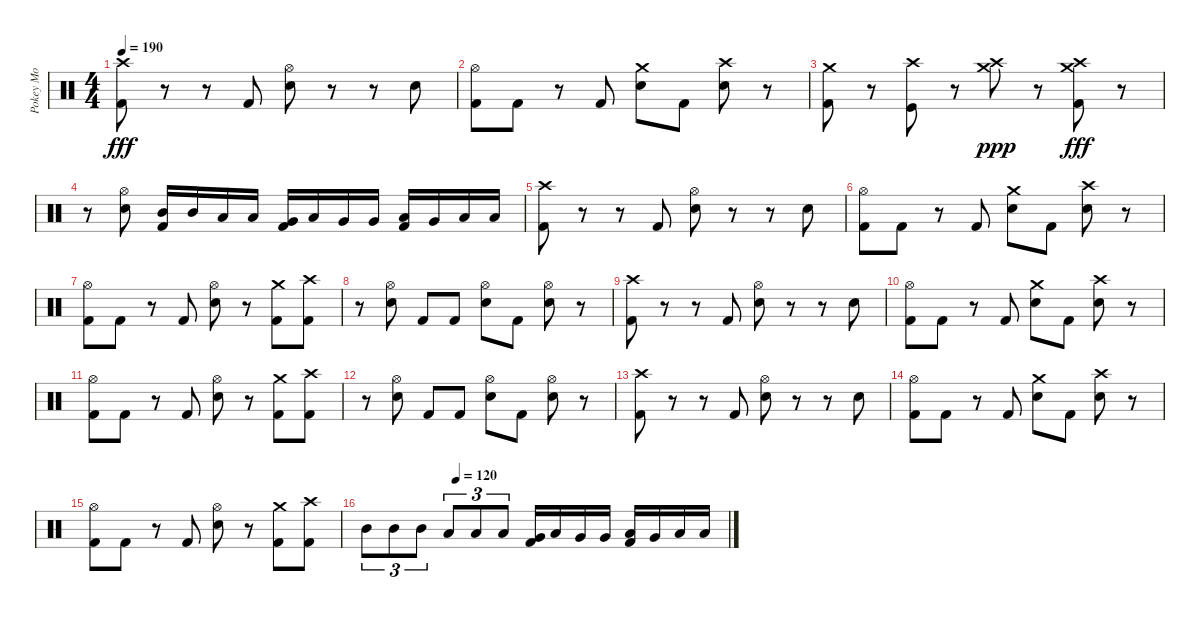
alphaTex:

\track ("Pokey Mo" "Pokey Mo") {instrument percussion}
\staff {score}
\articulation defaults
\ts (4 4)
\tempo 190
\clef neutral
\ks c
("Crash high (hit)" "Kick (hit) 2").8{dy fff} r.8 r.8 "Kick (hit) 2".8 ("Hi-Hat (open)" "Electric Snare (hit)").8 r.8 r.8 "Electric Snare (hit)".8 |
("Hi-Hat (open)" "Kick (hit) 2").8 "Kick (hit) 2".8 r.8 "Kick (hit) 2".8 ("Crash medium (hit)" "Electric Snare (hit)").8 "Kick (hit) 2".8 ("Crash high (hit)" "Electric Snare (hit)").8 r.8 |
("Crash medium (hit)" "Kick (hit) 2").8 r.8 ("Crash high (hit)" "Kick (hit)").8 r.8 ("Crash medium (hit)" "Crash high (hit)").8{dy ppp} r.8 ("Crash medium (hit)" "Crash high (hit)" "Kick (hit) 2").8{dy fff} r.8 |
r.8 ("Hi-Hat (open)" "Electric Snare (hit)").8 ("Mid Tom (hit)" "Kick (hit) 2").16 "Mid Tom (hit)".16 "Low Tom (hit)".16 "Low Tom (hit)".16 ("Very Low Tom (hit)" "Kick (hit) 2").16 "Low Tom (hit)".16 "Very Low Tom (hit)".16 "Very Low Tom (hit)".16 ("Low Floor Tom (hit)" "Kick (hit) 2").16 "Very Low Tom (hit)".16 "Low Floor Tom (hit)".16 "Low Floor Tom (hit)".16 |
("Crash high (hit)" "Kick (hit) 2").8 r.8 r.8 "Kick (hit) 2".8 ("Hi-Hat (open)" "Electric Snare (hit)").8 r.8 r.8 "Electric Snare (hit)".8 |
("Hi-Hat (open)" "Kick (hit) 2").8 "Kick (hit) 2".8 r.8 "Kick (hit) 2".8 ("Crash medium (hit)" "Electric Snare (hit)").8 "Kick (hit) 2".8 ("Crash high (hit)" "Electric Snare (hit)").8 r.8 |
("Hi-Hat (open)" "Kick (hit) 2").8 "Kick (hit) 2".8 r.8 "Kick (hit) 2".8 ("Hi-Hat (open)" "Electric Snare (hit)").8 r.8 ("Crash medium (hit)" "Kick (hit) 2").8 ("Crash high (hit)" "Kick (hit) 2").8 |
r.8 ("Hi-Hat (open)" "Electric Snare (hit)").8 "Kick (hit) 2".8 "Kick (hit) 2".8 ("Hi-Hat (open)" "Electric Snare (hit)").8 "Kick (hit) 2".8 ("Hi-Hat (open)" "Electric Snare (hit)").8 r.8 |
("Crash high (hit)" "Kick (hit) 2").8 r.8 r.8 "Kick (hit) 2".8 ("Hi-Hat (open)" "Electric Snare (hit)").8 r.8 r.8 "Electric Snare (hit)".8 |
("Hi-Hat (open)" "Kick (hit) 2").8 "Kick (hit) 2".8 r.8 "Kick (hit) 2".8 ("Crash medium (hit)" "Electric Snare (hit)").8 "Kick (hit) 2".8 ("Crash high (hit)" "Electric Snare (hit)").8 r.8 |
("Hi-Hat (open)" "Kick (hit) 2").8 "Kick (hit) 2".8 r.8 "Kick (hit) 2".8 ("Hi-Hat (open)" "Electric Snare (hit)").8 r.8 ("Crash medium (hit)" "Kick (hit) 2").8 ("Crash high (hit)" "Kick (hit) 2").8 |
r.8 ("Hi-Hat (open)" "Electric Snare (hit)").8 "Kick (hit) 2".8 "Kick (hit) 2".8 ("Hi-Hat (open)" "Electric Snare (hit)").8 "Kick (hit) 2".8 ("Hi-Hat (open)" "Electric Snare (hit)").8 r.8 |
("Crash high (hit)" "Kick (hit) 2").8 r.8 r.8 "Kick (hit) 2".8 ("Hi-Hat (open)" "Electric Snare (hit)").8 r.8 r.8 "Electric Snare (hit)".8 |
("Hi-Hat (open)" "Kick (hit) 2").8 "Kick (hit) 2".8 r.8 "Kick (hit) 2".8 ("Crash medium (hit)" "Electric Snare (hit)").8 "Kick (hit) 2".8 ("Crash high (hit)" "Electric Snare (hit)").8 r.8 |
("Hi-Hat (open)" "Kick (hit) 2").8 "Kick (hit) 2".8 r.8 "Kick (hit) 2".8 ("Hi-Hat (open)" "Electric Snare (hit)").8 r.8 ("Crash medium (hit)" "Kick (hit) 2").8 ("Crash high (hit)" "Kick (hit) 2").8 |
\tempo (120 0.25)
"Mid Tom (hit)".8{tu (3 2)} "Mid Tom (hit)".8{tu (3 2)} "Mid Tom (hit)".8{tu (3 2)} "Low Tom (hit)".8{tu (3 2)} "Low Tom (hit)".8{tu (3 2)} "Low Tom (hit)".8{tu (3 2)} ("Very Low Tom (hit)" "Kick (hit) 2").16 "Low Tom (hit)".16 "Very Low Tom (hit)".16 "Very Low Tom (hit)".16 ("Low Floor Tom (hit)" "Kick (hit) 2").16 "Very Low Tom (hit)".16 "Low Floor Tom (hit)".16 "Low Floor Tom (hit)".16
